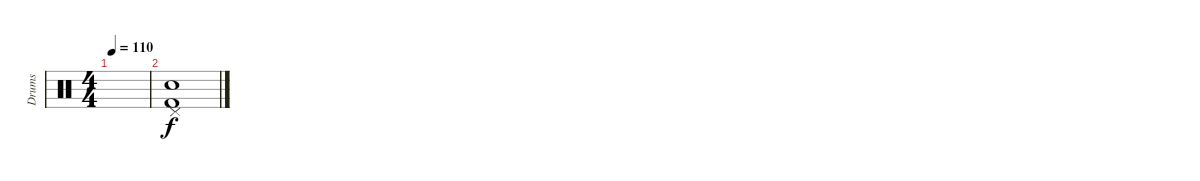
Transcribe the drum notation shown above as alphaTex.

\track ("Drums" "Drums") {instrument percussion}
\staff {score}
\articulation defaults
\ts (4 4)
\tempo 110
\clef neutral
\ks c
|
("Pedal Hi-Hat (hit)" "Snare (hit) 2" "Kick (hit) 2").1
